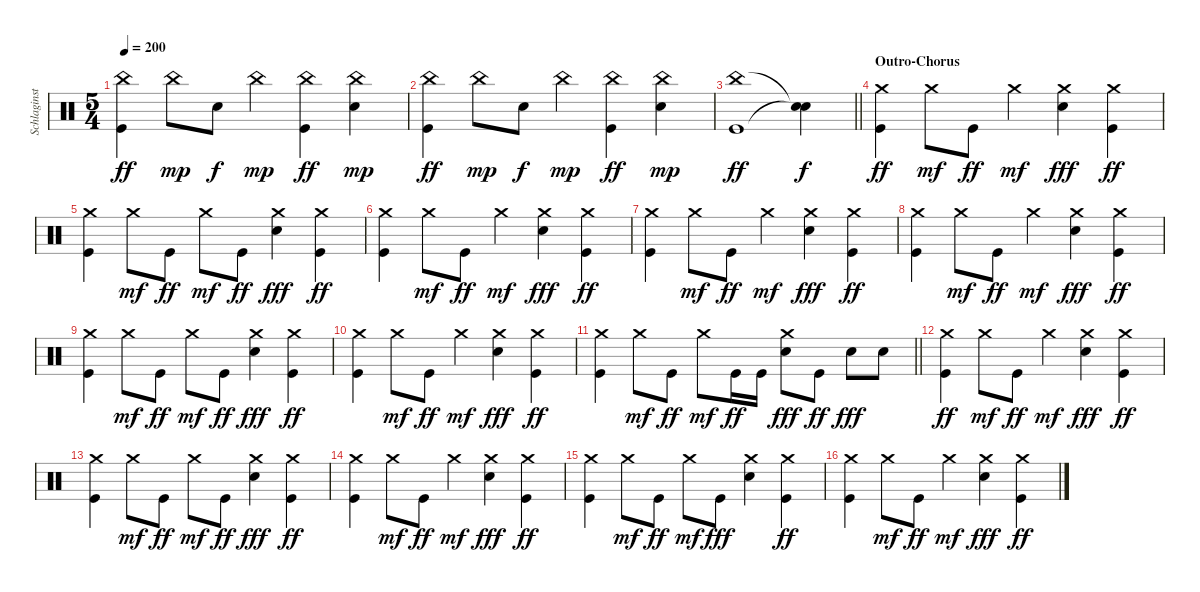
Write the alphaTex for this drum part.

\track ("Schlaginstrumente - Auswahl" "Schlaginst") {instrument percussion}
\staff {score}
\articulation defaults
\ts (5 4)
\tempo 200
\clef neutral
\ks c
("China (hit)" "Kick (hit)").4{dy ff} "China (hit)".8{dy mp} "Electric Snare (hit)".8{dy f} "China (hit)".4{dy mp} ("China (hit)" "Kick (hit)").4{dy ff} ("China (hit)" "Electric Snare (hit)").4{dy mp} |
("China (hit)" "Kick (hit)").4{dy ff} "China (hit)".8{dy mp} "Electric Snare (hit)".8{dy f} "China (hit)".4{dy mp} ("China (hit)" "Kick (hit)").4{dy ff} ("China (hit)" "Electric Snare (hit)").4{dy mp} |
\barLineRight lightlight
("China (hit)" "Kick (hit)").1{dy ff} ("Snare (hit)"{t} "Snare (hit)"{t}).4{dy f} |
\section ("" "Outro-Chorus")
("Crash medium (hit)" "Kick (hit)").4{dy ff} "Crash medium (hit)".8{dy mf} "Kick (hit)".8{dy ff} "Crash medium (hit)".4{dy mf} ("Crash medium (hit)" "Snare (hit) 2").4{dy fff} ("Crash medium (hit)" "Kick (hit)").4{dy ff} |
("Crash medium (hit)" "Kick (hit)").4 "Crash medium (hit)".8{dy mf} "Kick (hit)".8{dy ff} "Crash medium (hit)".8{dy mf} "Kick (hit)".8{dy ff} ("Crash medium (hit)" "Snare (hit) 2").4{dy fff} ("Crash medium (hit)" "Kick (hit)").4{dy ff} |
("Crash medium (hit)" "Kick (hit)").4 "Crash medium (hit)".8{dy mf} "Kick (hit)".8{dy ff} "Crash medium (hit)".4{dy mf} ("Crash medium (hit)" "Snare (hit) 2").4{dy fff} ("Crash medium (hit)" "Kick (hit)").4{dy ff} |
("Crash medium (hit)" "Kick (hit)").4 "Crash medium (hit)".8{dy mf} "Kick (hit)".8{dy ff} "Crash medium (hit)".4{dy mf} ("Crash medium (hit)" "Snare (hit) 2").4{dy fff} ("Crash medium (hit)" "Kick (hit)").4{dy ff} |
("Crash medium (hit)" "Kick (hit)").4 "Crash medium (hit)".8{dy mf} "Kick (hit)".8{dy ff} "Crash medium (hit)".4{dy mf} ("Crash medium (hit)" "Snare (hit) 2").4{dy fff} ("Crash medium (hit)" "Kick (hit)").4{dy ff} |
("Crash medium (hit)" "Kick (hit)").4 "Crash medium (hit)".8{dy mf} "Kick (hit)".8{dy ff} "Crash medium (hit)".8{dy mf} "Kick (hit)".8{dy ff} ("Crash medium (hit)" "Snare (hit) 2").4{dy fff} ("Crash medium (hit)" "Kick (hit)").4{dy ff} |
("Crash medium (hit)" "Kick (hit)").4 "Crash medium (hit)".8{dy mf} "Kick (hit)".8{dy ff} "Crash medium (hit)".4{dy mf} ("Crash medium (hit)" "Snare (hit) 2").4{dy fff} ("Crash medium (hit)" "Kick (hit)").4{dy ff} |
\barLineRight lightlight
("Crash medium (hit)" "Kick (hit)").4 "Crash medium (hit)".8{dy mf} "Kick (hit)".8{dy ff} "Crash medium (hit)".8{dy mf} "Kick (hit)".16{dy ff} "Kick (hit)".16 ("Crash medium (hit)" "Snare (hit) 2").8{dy fff} "Kick (hit)".8{dy ff} "Snare (hit) 2".8{dy fff} "Snare (hit) 2".8 |
("Crash medium (hit)" "Kick (hit)").4{dy ff} "Crash medium (hit)".8{dy mf} "Kick (hit)".8{dy ff} "Crash medium (hit)".4{dy mf} ("Crash medium (hit)" "Snare (hit) 2").4{dy fff} ("Crash medium (hit)" "Kick (hit)").4{dy ff} |
("Crash medium (hit)" "Kick (hit)").4 "Crash medium (hit)".8{dy mf} "Kick (hit)".8{dy ff} "Crash medium (hit)".8{dy mf} "Kick (hit)".8{dy ff} ("Crash medium (hit)" "Snare (hit) 2").4{dy fff} ("Crash medium (hit)" "Kick (hit)").4{dy ff} |
("Crash medium (hit)" "Kick (hit)").4 "Crash medium (hit)".8{dy mf} "Kick (hit)".8{dy ff} "Crash medium (hit)".4{dy mf} ("Crash medium (hit)" "Snare (hit) 2").4{dy fff} ("Crash medium (hit)" "Kick (hit)").4{dy ff} |
("Crash medium (hit)" "Kick (hit)").4 "Crash medium (hit)".8{dy mf} "Kick (hit)".8{dy ff} "Crash medium (hit)".8{dy mf} "Kick (hit)".8{dy fff} ("Crash medium (hit)" "Snare (hit) 2").4 ("Crash medium (hit)" "Kick (hit)").4{dy ff} |
("Crash medium (hit)" "Kick (hit)").4 "Crash medium (hit)".8{dy mf} "Kick (hit)".8{dy ff} "Crash medium (hit)".4{dy mf} ("Crash medium (hit)" "Snare (hit) 2").4{dy fff} ("Crash medium (hit)" "Kick (hit)").4{dy ff}
